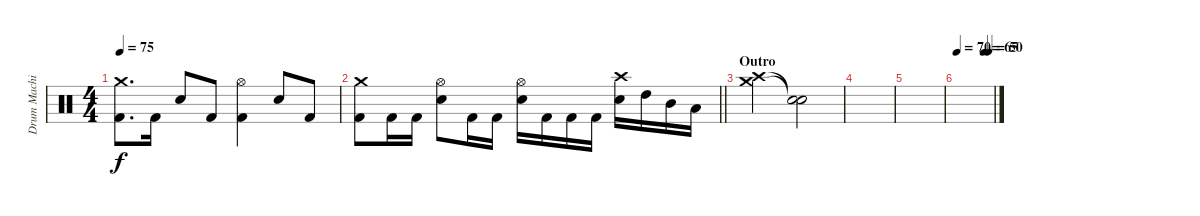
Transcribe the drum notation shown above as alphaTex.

\track ("Drum Machine" "Drum Machi") {mute instrument percussion}
\staff {score}
\articulation defaults
\ts (4 4)
\tempo 75
\clef neutral
\ks c
("Kick (hit) 2" "Crash medium (hit)").8{d dy f} "Kick (hit) 2".16 "Electric Snare (hit)".8 "Kick (hit) 2".8 ("Kick (hit) 2" "Hi-Hat (open)").4 "Electric Snare (hit)".8 "Kick (hit) 2".8 |
\barLineRight lightlight
("Kick (hit) 2" "Crash medium (hit)").8 "Kick (hit) 2".16 "Kick (hit) 2".16 ("Electric Snare (hit)" "Hi-Hat (open)").8 "Kick (hit) 2".16 "Kick (hit) 2".16 ("Electric Snare (hit)" "Hi-Hat (open)").16 "Kick (hit) 2".16 "Kick (hit) 2".16 "Kick (hit) 2".16 ("Electric Snare (hit)" "Crash high (hit)").16 "High Tom (hit)".16 "Mid Tom (hit)".16 "Low Tom (hit)".16 |
\section ("" "Outro")
("Crash high (hit)" "Crash medium (hit)").2 ("Snare (hit)"{t} "Snare (hit)"{t}).2 |
|
|
\tempo 70
\tempo (65 0.75)
\tempo (50 0.875)
